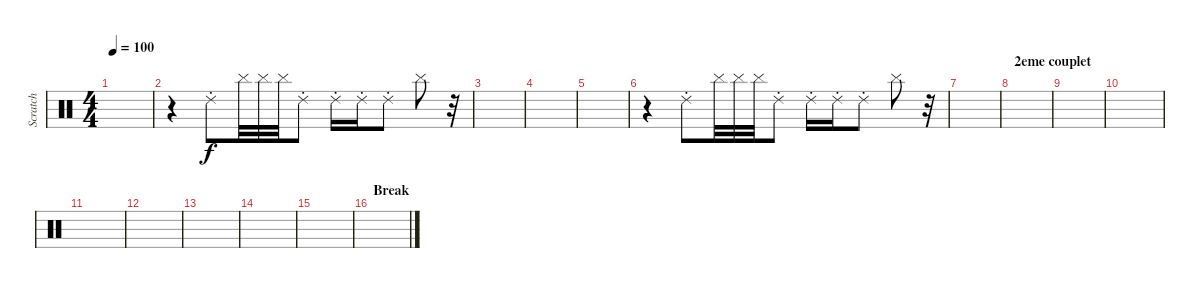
\track ("Scratch" "Scratch") {instrument percussion}
\staff {score}
\articulation defaults
\ts (4 4)
\tempo 100
\clef neutral
\ks c
|
r.4 "Ride (choke) 2".8 "Cymbal (hit)".32 "Cymbal (hit)".32 "Cymbal (hit)".32 "Ride (choke) 2".8 "Ride (choke) 2".16 "Ride (choke) 2".16 "Ride (choke) 2".8 "Cymbal (hit)".8 r.32 |
|
|
|
r.4 "Ride (choke) 2".8 "Cymbal (hit)".32 "Cymbal (hit)".32 "Cymbal (hit)".32 "Ride (choke) 2".8 "Ride (choke) 2".16 "Ride (choke) 2".16 "Ride (choke) 2".8 "Cymbal (hit)".8 r.32 |
|
\section ("" "2eme couplet")
|
|
|
|
|
|
|
|
\section ("" "Break ")
